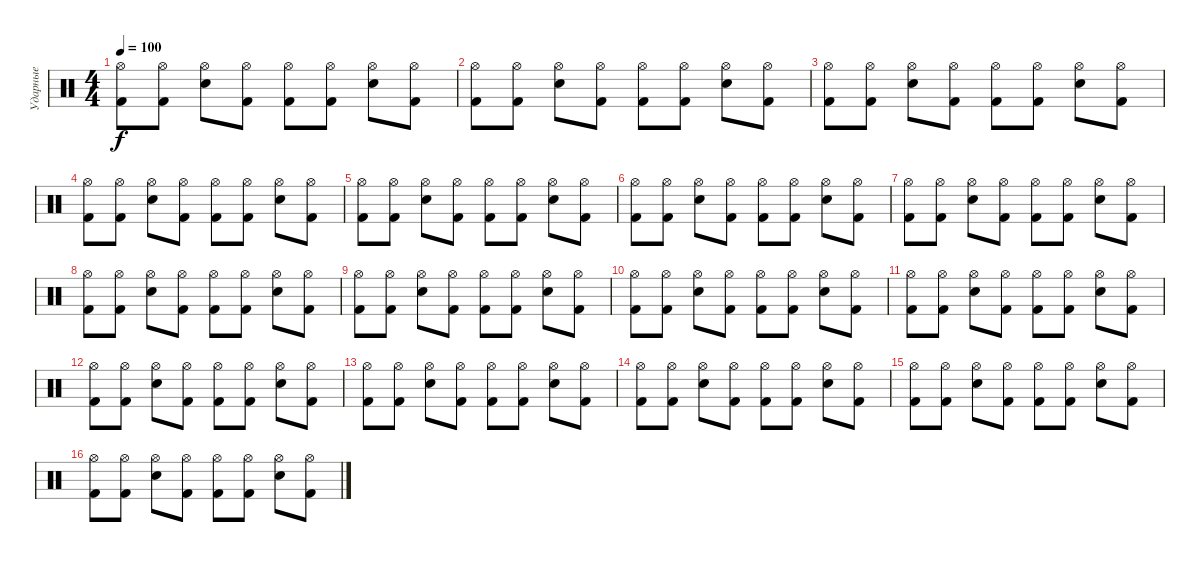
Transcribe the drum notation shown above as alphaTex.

\track ("Ударные" "Ударные") {instrument percussion}
\staff {score}
\articulation defaults
\ts (4 4)
\tempo 100
\clef neutral
\ks c
("Hi-Hat (open)" "Kick (hit) 2").8{dy f} ("Hi-Hat (open)" "Kick (hit) 2").8 ("Hi-Hat (open)" "Snare (hit) 2").8 ("Hi-Hat (open)" "Kick (hit) 2").8 ("Hi-Hat (open)" "Kick (hit) 2").8 ("Hi-Hat (open)" "Kick (hit) 2").8 ("Hi-Hat (open)" "Snare (hit) 2").8 ("Hi-Hat (open)" "Kick (hit) 2").8 |
("Hi-Hat (open)" "Kick (hit) 2").8 ("Hi-Hat (open)" "Kick (hit) 2").8 ("Hi-Hat (open)" "Snare (hit) 2").8 ("Hi-Hat (open)" "Kick (hit) 2").8 ("Hi-Hat (open)" "Kick (hit) 2").8 ("Hi-Hat (open)" "Kick (hit) 2").8 ("Hi-Hat (open)" "Snare (hit) 2").8 ("Hi-Hat (open)" "Kick (hit) 2").8 |
("Hi-Hat (open)" "Kick (hit) 2").8 ("Hi-Hat (open)" "Kick (hit) 2").8 ("Hi-Hat (open)" "Snare (hit) 2").8 ("Hi-Hat (open)" "Kick (hit) 2").8 ("Hi-Hat (open)" "Kick (hit) 2").8 ("Hi-Hat (open)" "Kick (hit) 2").8 ("Hi-Hat (open)" "Snare (hit) 2").8 ("Hi-Hat (open)" "Kick (hit) 2").8 |
("Hi-Hat (open)" "Kick (hit) 2").8 ("Hi-Hat (open)" "Kick (hit) 2").8 ("Hi-Hat (open)" "Snare (hit) 2").8 ("Hi-Hat (open)" "Kick (hit) 2").8 ("Hi-Hat (open)" "Kick (hit) 2").8 ("Hi-Hat (open)" "Kick (hit) 2").8 ("Hi-Hat (open)" "Snare (hit) 2").8 ("Hi-Hat (open)" "Kick (hit) 2").8 |
("Hi-Hat (open)" "Kick (hit) 2").8 ("Hi-Hat (open)" "Kick (hit) 2").8 ("Hi-Hat (open)" "Snare (hit) 2").8 ("Hi-Hat (open)" "Kick (hit) 2").8 ("Hi-Hat (open)" "Kick (hit) 2").8 ("Hi-Hat (open)" "Kick (hit) 2").8 ("Hi-Hat (open)" "Snare (hit) 2").8 ("Hi-Hat (open)" "Kick (hit) 2").8 |
("Hi-Hat (open)" "Kick (hit) 2").8 ("Hi-Hat (open)" "Kick (hit) 2").8 ("Hi-Hat (open)" "Snare (hit) 2").8 ("Hi-Hat (open)" "Kick (hit) 2").8 ("Hi-Hat (open)" "Kick (hit) 2").8 ("Hi-Hat (open)" "Kick (hit) 2").8 ("Hi-Hat (open)" "Snare (hit) 2").8 ("Hi-Hat (open)" "Kick (hit) 2").8 |
("Hi-Hat (open)" "Kick (hit) 2").8 ("Hi-Hat (open)" "Kick (hit) 2").8 ("Hi-Hat (open)" "Snare (hit) 2").8 ("Hi-Hat (open)" "Kick (hit) 2").8 ("Hi-Hat (open)" "Kick (hit) 2").8 ("Hi-Hat (open)" "Kick (hit) 2").8 ("Hi-Hat (open)" "Snare (hit) 2").8 ("Hi-Hat (open)" "Kick (hit) 2").8 |
("Hi-Hat (open)" "Kick (hit) 2").8 ("Hi-Hat (open)" "Kick (hit) 2").8 ("Hi-Hat (open)" "Snare (hit) 2").8 ("Hi-Hat (open)" "Kick (hit) 2").8 ("Hi-Hat (open)" "Kick (hit) 2").8 ("Hi-Hat (open)" "Kick (hit) 2").8 ("Hi-Hat (open)" "Snare (hit) 2").8 ("Hi-Hat (open)" "Kick (hit) 2").8 |
("Hi-Hat (open)" "Kick (hit) 2").8 ("Hi-Hat (open)" "Kick (hit) 2").8 ("Hi-Hat (open)" "Snare (hit) 2").8 ("Hi-Hat (open)" "Kick (hit) 2").8 ("Hi-Hat (open)" "Kick (hit) 2").8 ("Hi-Hat (open)" "Kick (hit) 2").8 ("Hi-Hat (open)" "Snare (hit) 2").8 ("Hi-Hat (open)" "Kick (hit) 2").8 |
("Hi-Hat (open)" "Kick (hit) 2").8 ("Hi-Hat (open)" "Kick (hit) 2").8 ("Hi-Hat (open)" "Snare (hit) 2").8 ("Hi-Hat (open)" "Kick (hit) 2").8 ("Hi-Hat (open)" "Kick (hit) 2").8 ("Hi-Hat (open)" "Kick (hit) 2").8 ("Hi-Hat (open)" "Snare (hit) 2").8 ("Hi-Hat (open)" "Kick (hit) 2").8 |
("Hi-Hat (open)" "Kick (hit) 2").8 ("Hi-Hat (open)" "Kick (hit) 2").8 ("Hi-Hat (open)" "Snare (hit) 2").8 ("Hi-Hat (open)" "Kick (hit) 2").8 ("Hi-Hat (open)" "Kick (hit) 2").8 ("Hi-Hat (open)" "Kick (hit) 2").8 ("Hi-Hat (open)" "Snare (hit) 2").8 ("Hi-Hat (open)" "Kick (hit) 2").8 |
("Hi-Hat (open)" "Kick (hit) 2").8 ("Hi-Hat (open)" "Kick (hit) 2").8 ("Hi-Hat (open)" "Snare (hit) 2").8 ("Hi-Hat (open)" "Kick (hit) 2").8 ("Hi-Hat (open)" "Kick (hit) 2").8 ("Hi-Hat (open)" "Kick (hit) 2").8 ("Hi-Hat (open)" "Snare (hit) 2").8 ("Hi-Hat (open)" "Kick (hit) 2").8 |
("Hi-Hat (open)" "Kick (hit) 2").8 ("Hi-Hat (open)" "Kick (hit) 2").8 ("Hi-Hat (open)" "Snare (hit) 2").8 ("Hi-Hat (open)" "Kick (hit) 2").8 ("Hi-Hat (open)" "Kick (hit) 2").8 ("Hi-Hat (open)" "Kick (hit) 2").8 ("Hi-Hat (open)" "Snare (hit) 2").8 ("Hi-Hat (open)" "Kick (hit) 2").8 |
("Hi-Hat (open)" "Kick (hit) 2").8 ("Hi-Hat (open)" "Kick (hit) 2").8 ("Hi-Hat (open)" "Snare (hit) 2").8 ("Hi-Hat (open)" "Kick (hit) 2").8 ("Hi-Hat (open)" "Kick (hit) 2").8 ("Hi-Hat (open)" "Kick (hit) 2").8 ("Hi-Hat (open)" "Snare (hit) 2").8 ("Hi-Hat (open)" "Kick (hit) 2").8 |
("Hi-Hat (open)" "Kick (hit) 2").8 ("Hi-Hat (open)" "Kick (hit) 2").8 ("Hi-Hat (open)" "Snare (hit) 2").8 ("Hi-Hat (open)" "Kick (hit) 2").8 ("Hi-Hat (open)" "Kick (hit) 2").8 ("Hi-Hat (open)" "Kick (hit) 2").8 ("Hi-Hat (open)" "Snare (hit) 2").8 ("Hi-Hat (open)" "Kick (hit) 2").8 |
("Hi-Hat (open)" "Kick (hit) 2").8 ("Hi-Hat (open)" "Kick (hit) 2").8 ("Hi-Hat (open)" "Snare (hit) 2").8 ("Hi-Hat (open)" "Kick (hit) 2").8 ("Hi-Hat (open)" "Kick (hit) 2").8 ("Hi-Hat (open)" "Kick (hit) 2").8 ("Hi-Hat (open)" "Snare (hit) 2").8 ("Hi-Hat (open)" "Kick (hit) 2").8
